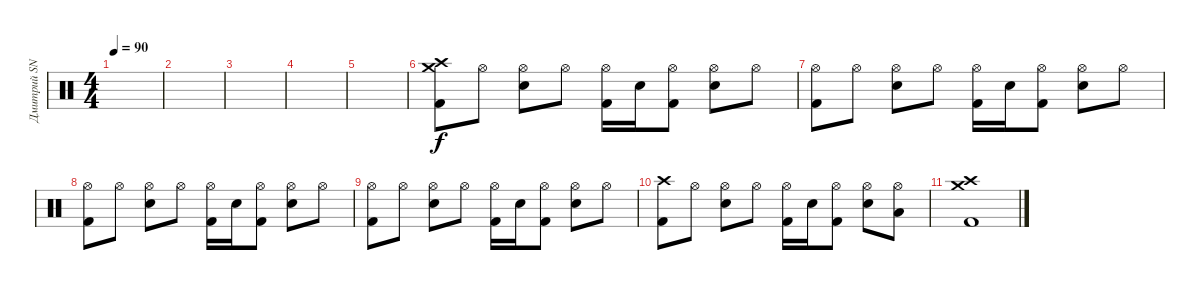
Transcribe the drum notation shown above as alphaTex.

\track ("Дмитрий SNAKE Хакимов" "Дмитрий SN") {instrument percussion}
\staff {score}
\articulation defaults
\ts (4 4)
\tempo 90
\clef neutral
\ks c
|
|
|
|
|
("Crash high (hit)" "Crash medium (hit)" "Kick (hit) 2").8 "Hi-Hat (open)".8 ("Hi-Hat (open)" "Snare (hit) 2").8 "Hi-Hat (open)".8 ("Hi-Hat (open)" "Kick (hit) 2").16 "Snare (hit) 2".16 ("Hi-Hat (open)" "Kick (hit) 2").8 ("Hi-Hat (open)" "Snare (hit) 2").8 "Hi-Hat (open)".8 |
("Hi-Hat (open)" "Kick (hit) 2").8 "Hi-Hat (open)".8 ("Hi-Hat (open)" "Snare (hit) 2").8 "Hi-Hat (open)".8 ("Hi-Hat (open)" "Kick (hit) 2").16 "Snare (hit) 2".16 ("Hi-Hat (open)" "Kick (hit) 2").8 ("Hi-Hat (open)" "Snare (hit) 2").8 "Hi-Hat (open)".8 |
("Hi-Hat (open)" "Kick (hit) 2").8 "Hi-Hat (open)".8 ("Hi-Hat (open)" "Snare (hit) 2").8 "Hi-Hat (open)".8 ("Hi-Hat (open)" "Kick (hit) 2").16 "Snare (hit) 2".16 ("Hi-Hat (open)" "Kick (hit) 2").8 ("Hi-Hat (open)" "Snare (hit) 2").8 "Hi-Hat (open)".8 |
("Hi-Hat (open)" "Kick (hit) 2").8 "Hi-Hat (open)".8 ("Hi-Hat (open)" "Snare (hit) 2").8 "Hi-Hat (open)".8 ("Hi-Hat (open)" "Kick (hit) 2").16 "Snare (hit) 2".16 ("Hi-Hat (open)" "Kick (hit) 2").8 ("Hi-Hat (open)" "Snare (hit) 2").8 "Hi-Hat (open)".8 |
("Crash high (hit)" "Kick (hit) 2").8 "Hi-Hat (open)".8 ("Hi-Hat (open)" "Snare (hit) 2").8 "Hi-Hat (open)".8 ("Hi-Hat (open)" "Kick (hit) 2").16 "Snare (hit) 2".16 ("Hi-Hat (open)" "Kick (hit) 2").8 ("Hi-Hat (open)" "Snare (hit) 2").8 ("Hi-Hat (open)" "Low Tom (hit)").8 |
("Crash high (hit)" "Crash medium (hit)" "Kick (hit) 2").1
